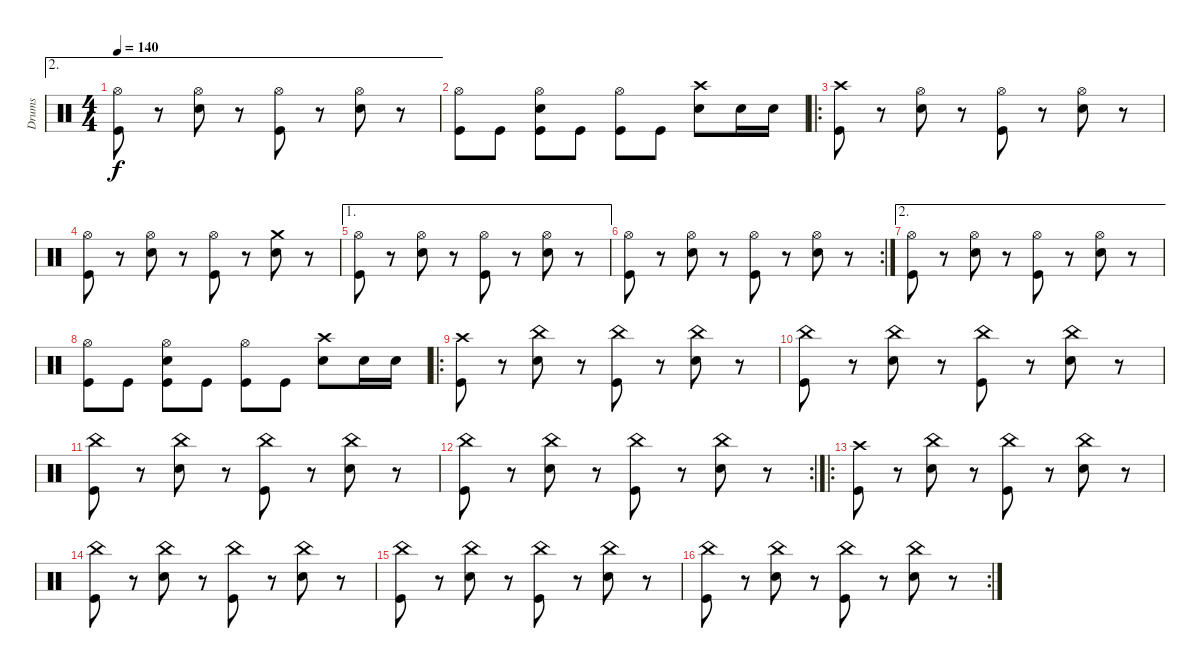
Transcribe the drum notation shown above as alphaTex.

\track ("Drums" "Drums") {instrument percussion}
\staff {score}
\articulation defaults
\ae 2
\ts (4 4)
\tempo 140
\clef neutral
\ks c
("Hi-Hat (open)" "Kick (hit)").8{dy f} r.8 ("Hi-Hat (open)" "Snare (hit) 2").8 r.8 ("Hi-Hat (open)" "Kick (hit)").8 r.8 ("Hi-Hat (open)" "Snare (hit) 2").8 r.8 |
("Hi-Hat (open)" "Kick (hit)").8 "Kick (hit)".8 ("Hi-Hat (open)" "Snare (hit) 2" "Kick (hit)").8 "Kick (hit)".8 ("Hi-Hat (open)" "Kick (hit)").8 "Kick (hit)".8 ("Crash high (hit)" "Snare (hit) 2").8 "Snare (hit) 2".16 "Snare (hit) 2".16 |
\ro
("Crash high (hit)" "Kick (hit)").8 r.8 ("Hi-Hat (open)" "Snare (hit) 2").8 r.8 ("Hi-Hat (open)" "Kick (hit)").8 r.8 ("Hi-Hat (open)" "Snare (hit) 2").8 r.8 |
("Hi-Hat (open)" "Kick (hit)").8 r.8 ("Hi-Hat (open)" "Snare (hit) 2").8 r.8 ("Hi-Hat (open)" "Kick (hit)").8 r.8 ("Crash medium (hit)" "Snare (hit) 2").8 r.8 |
\ae 1
("Hi-Hat (open)" "Kick (hit)").8 r.8 ("Hi-Hat (open)" "Snare (hit) 2").8 r.8 ("Hi-Hat (open)" "Kick (hit)").8 r.8 ("Hi-Hat (open)" "Snare (hit) 2").8 r.8 |
\rc 2
("Hi-Hat (open)" "Kick (hit)").8 r.8 ("Hi-Hat (open)" "Snare (hit) 2").8 r.8 ("Hi-Hat (open)" "Kick (hit)").8 r.8 ("Hi-Hat (open)" "Snare (hit) 2").8 r.8 |
\ae 2
("Hi-Hat (open)" "Kick (hit)").8 r.8 ("Hi-Hat (open)" "Snare (hit) 2").8 r.8 ("Hi-Hat (open)" "Kick (hit)").8 r.8 ("Hi-Hat (open)" "Snare (hit) 2").8 r.8 |
("Hi-Hat (open)" "Kick (hit)").8 "Kick (hit)".8 ("Hi-Hat (open)" "Snare (hit) 2" "Kick (hit)").8 "Kick (hit)".8 ("Hi-Hat (open)" "Kick (hit)").8 "Kick (hit)".8 ("Crash high (hit)" "Snare (hit) 2").8 "Snare (hit) 2".16 "Snare (hit) 2".16 |
\ro
("Crash high (hit)" "Kick (hit)").8 r.8 ("China (hit)" "Snare (hit) 2").8 r.8 ("China (hit)" "Kick (hit)").8 r.8 ("China (hit)" "Snare (hit) 2").8 r.8 |
("China (hit)" "Kick (hit)").8 r.8 ("China (hit)" "Snare (hit) 2").8 r.8 ("China (hit)" "Kick (hit)").8 r.8 ("China (hit)" "Snare (hit) 2").8 r.8 |
("China (hit)" "Kick (hit)").8 r.8 ("China (hit)" "Snare (hit) 2").8 r.8 ("China (hit)" "Kick (hit)").8 r.8 ("China (hit)" "Snare (hit) 2").8 r.8 |
\rc 2
("China (hit)" "Kick (hit)").8 r.8 ("China (hit)" "Snare (hit) 2").8 r.8 ("China (hit)" "Kick (hit)").8 r.8 ("China (hit)" "Snare (hit) 2").8 r.8 |
\ro
("Crash high (hit)" "Kick (hit)").8 r.8 ("China (hit)" "Snare (hit) 2").8 r.8 ("China (hit)" "Kick (hit)").8 r.8 ("China (hit)" "Snare (hit) 2").8 r.8 |
("China (hit)" "Kick (hit)").8 r.8 ("China (hit)" "Snare (hit) 2").8 r.8 ("China (hit)" "Kick (hit)").8 r.8 ("China (hit)" "Snare (hit) 2").8 r.8 |
("China (hit)" "Kick (hit)").8 r.8 ("China (hit)" "Snare (hit) 2").8 r.8 ("China (hit)" "Kick (hit)").8 r.8 ("China (hit)" "Snare (hit) 2").8 r.8 |
\rc 2
("China (hit)" "Kick (hit)").8 r.8 ("China (hit)" "Snare (hit) 2").8 r.8 ("China (hit)" "Kick (hit)").8 r.8 ("China (hit)" "Snare (hit) 2").8 r.8
